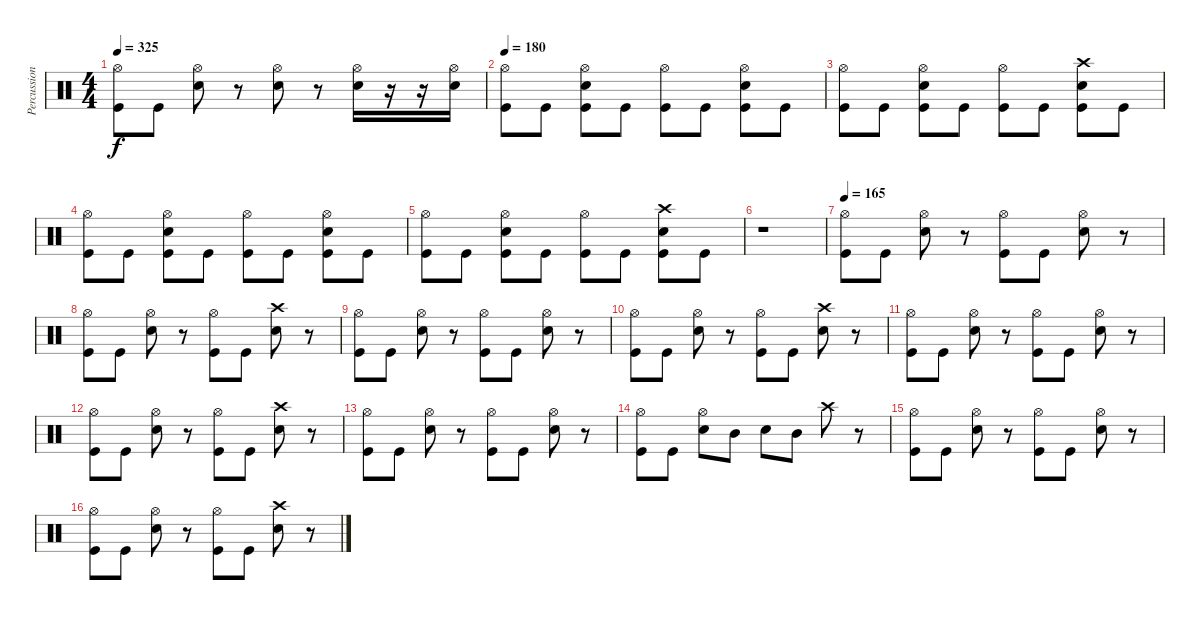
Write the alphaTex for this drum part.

\track ("Percussion" "Percussion") {instrument percussion}
\staff {score}
\articulation defaults
\ts (4 4)
\tempo 325
\clef neutral
\ks c
("Hi-Hat (open)" "Kick (hit)").8{dy f} "Kick (hit)".8 ("Hi-Hat (open)" "Snare (hit) 2").8 r.8 ("Hi-Hat (open)" "Snare (hit) 2").8 r.8 ("Hi-Hat (open)" "Snare (hit) 2").16 r.16 r.16 ("Hi-Hat (open)" "Snare (hit) 2").16 |
\tempo 180
("Hi-Hat (open)" "Kick (hit)").8 "Kick (hit)".8 ("Hi-Hat (open)" "Snare (hit) 2" "Kick (hit)").8 "Kick (hit)".8 ("Hi-Hat (open)" "Kick (hit)").8 "Kick (hit)".8 ("Hi-Hat (open)" "Snare (hit) 2" "Kick (hit)").8 "Kick (hit)".8 |
("Hi-Hat (open)" "Kick (hit)").8 "Kick (hit)".8 ("Hi-Hat (open)" "Snare (hit) 2" "Kick (hit)").8 "Kick (hit)".8 ("Hi-Hat (open)" "Kick (hit)").8 "Kick (hit)".8 ("Crash high (hit)" "Snare (hit) 2" "Kick (hit)").8 "Kick (hit)".8 |
("Hi-Hat (open)" "Kick (hit)").8 "Kick (hit)".8 ("Hi-Hat (open)" "Snare (hit) 2" "Kick (hit)").8 "Kick (hit)".8 ("Hi-Hat (open)" "Kick (hit)").8 "Kick (hit)".8 ("Hi-Hat (open)" "Snare (hit) 2" "Kick (hit)").8 "Kick (hit)".8 |
("Hi-Hat (open)" "Kick (hit)").8 "Kick (hit)".8 ("Hi-Hat (open)" "Snare (hit) 2" "Kick (hit)").8 "Kick (hit)".8 ("Hi-Hat (open)" "Kick (hit)").8 "Kick (hit)".8 ("Crash high (hit)" "Snare (hit) 2" "Kick (hit)").8 "Kick (hit)".8 |
r.1 |
\tempo 180
\tempo 165
("Hi-Hat (open)" "Kick (hit)").8 "Kick (hit)".8 ("Hi-Hat (open)" "Snare (hit) 2").8 r.8 ("Hi-Hat (open)" "Kick (hit)").8 "Kick (hit)".8 ("Hi-Hat (open)" "Snare (hit) 2").8 r.8 |
("Hi-Hat (open)" "Kick (hit)").8 "Kick (hit)".8 ("Hi-Hat (open)" "Snare (hit) 2").8 r.8 ("Hi-Hat (open)" "Kick (hit)").8 "Kick (hit)".8 ("Crash high (hit)" "Snare (hit) 2").8 r.8 |
("Hi-Hat (open)" "Kick (hit)").8 "Kick (hit)".8 ("Hi-Hat (open)" "Snare (hit) 2").8 r.8 ("Hi-Hat (open)" "Kick (hit)").8 "Kick (hit)".8 ("Hi-Hat (open)" "Snare (hit) 2").8 r.8 |
("Hi-Hat (open)" "Kick (hit)").8 "Kick (hit)".8 ("Hi-Hat (open)" "Snare (hit) 2").8 r.8 ("Hi-Hat (open)" "Kick (hit)").8 "Kick (hit)".8 ("Crash high (hit)" "Snare (hit) 2").8 r.8 |
("Hi-Hat (open)" "Kick (hit)").8 "Kick (hit)".8 ("Hi-Hat (open)" "Snare (hit) 2").8 r.8 ("Hi-Hat (open)" "Kick (hit)").8 "Kick (hit)".8 ("Hi-Hat (open)" "Snare (hit) 2").8 r.8 |
("Hi-Hat (open)" "Kick (hit)").8 "Kick (hit)".8 ("Hi-Hat (open)" "Snare (hit) 2").8 r.8 ("Hi-Hat (open)" "Kick (hit)").8 "Kick (hit)".8 ("Crash high (hit)" "Snare (hit) 2").8 r.8 |
("Hi-Hat (open)" "Kick (hit)").8 "Kick (hit)".8 ("Hi-Hat (open)" "Snare (hit) 2").8 r.8 ("Hi-Hat (open)" "Kick (hit)").8 "Kick (hit)".8 ("Hi-Hat (open)" "Snare (hit) 2").8 r.8 |
("Hi-Hat (open)" "Kick (hit)").8 "Kick (hit)".8 ("Hi-Hat (open)" "Snare (hit) 2").8 "Mid Tom (hit)".8 "Snare (hit) 2".8 "Mid Tom (hit)".8 "Crash high (hit)".8 r.8 |
("Hi-Hat (open)" "Kick (hit)").8 "Kick (hit)".8 ("Hi-Hat (open)" "Snare (hit) 2").8 r.8 ("Hi-Hat (open)" "Kick (hit)").8 "Kick (hit)".8 ("Hi-Hat (open)" "Snare (hit) 2").8 r.8 |
("Hi-Hat (open)" "Kick (hit)").8 "Kick (hit)".8 ("Hi-Hat (open)" "Snare (hit) 2").8 r.8 ("Hi-Hat (open)" "Kick (hit)").8 "Kick (hit)".8 ("Crash high (hit)" "Snare (hit) 2").8 r.8
